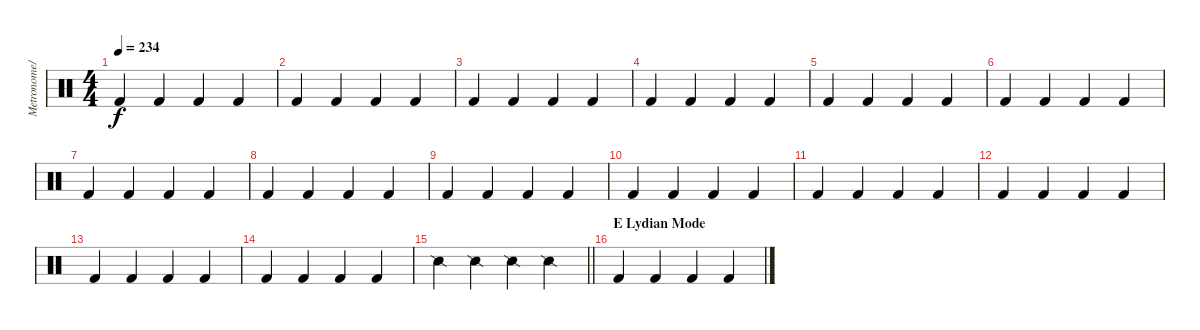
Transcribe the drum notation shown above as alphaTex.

\track ("Metronome/Beat" "Metronome/") {instrument percussion}
\staff {score}
\articulation defaults
\ts (4 4)
\tempo 234
\clef neutral
\ks c "Kick (hit) 2".4{dy f} "Kick (hit) 2".4 "Kick (hit) 2".4 "Kick (hit) 2".4
|
"Kick (hit) 2".4 "Kick (hit) 2".4 "Kick (hit) 2".4 "Kick (hit) 2".4 |
"Kick (hit) 2".4 "Kick (hit) 2".4 "Kick (hit) 2".4 "Kick (hit) 2".4 |
"Kick (hit) 2".4 "Kick (hit) 2".4 "Kick (hit) 2".4 "Kick (hit) 2".4 |
"Kick (hit) 2".4 "Kick (hit) 2".4 "Kick (hit) 2".4 "Kick (hit) 2".4 |
"Kick (hit) 2".4 "Kick (hit) 2".4 "Kick (hit) 2".4 "Kick (hit) 2".4 |
"Kick (hit) 2".4 "Kick (hit) 2".4 "Kick (hit) 2".4 "Kick (hit) 2".4 |
"Kick (hit) 2".4 "Kick (hit) 2".4 "Kick (hit) 2".4 "Kick (hit) 2".4 |
"Kick (hit) 2".4 "Kick (hit) 2".4 "Kick (hit) 2".4 "Kick (hit) 2".4 |
"Kick (hit) 2".4 "Kick (hit) 2".4 "Kick (hit) 2".4 "Kick (hit) 2".4 |
"Kick (hit) 2".4 "Kick (hit) 2".4 "Kick (hit) 2".4 "Kick (hit) 2".4 |
"Kick (hit) 2".4 "Kick (hit) 2".4 "Kick (hit) 2".4 "Kick (hit) 2".4 |
"Kick (hit) 2".4 "Kick (hit) 2".4 "Kick (hit) 2".4 "Kick (hit) 2".4 |
"Kick (hit) 2".4 "Kick (hit) 2".4 "Kick (hit) 2".4 "Kick (hit) 2".4 |
\barLineRight lightlight "Snare (side stick) 2".4 "Snare (side stick) 2".4 "Snare (side stick) 2".4 "Snare (side stick) 2".4
|
\section ("" "E Lydian Mode")
"Kick (hit) 2".4 "Kick (hit) 2".4 "Kick (hit) 2".4 "Kick (hit) 2".4
